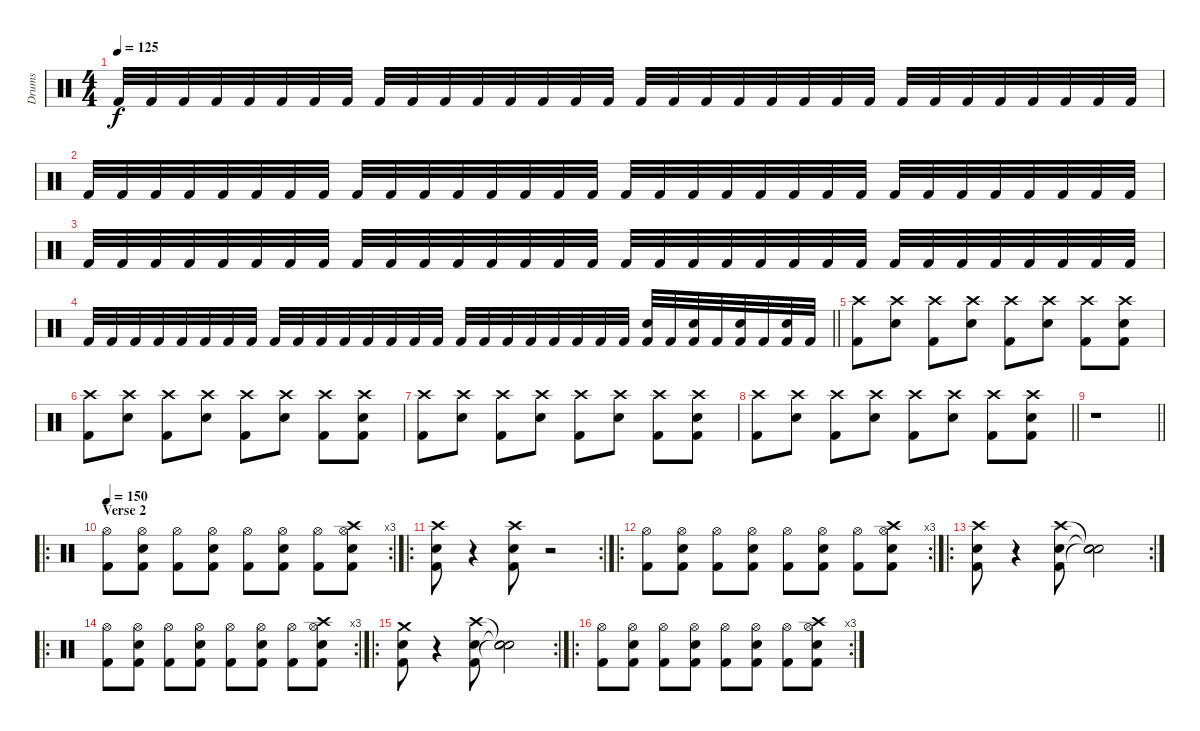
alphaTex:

\track ("Drums" "Drums") {instrument percussion}
\staff {score}
\articulation defaults
\ts (4 4)
\tempo 125
\clef neutral
\ks c "Kick (hit) 2".32{dy f} "Kick (hit) 2".32 "Kick (hit) 2".32 "Kick (hit) 2".32 "Kick (hit) 2".32 "Kick (hit) 2".32 "Kick (hit) 2".32 "Kick (hit) 2".32 "Kick (hit) 2".32 "Kick (hit) 2".32 "Kick (hit) 2".32 "Kick (hit) 2".32 "Kick (hit) 2".32 "Kick (hit) 2".32 "Kick (hit) 2".32 "Kick (hit) 2".32 "Kick (hit) 2".32 "Kick (hit) 2".32 "Kick (hit) 2".32 "Kick (hit) 2".32 "Kick (hit) 2".32 "Kick (hit) 2".32 "Kick (hit) 2".32 "Kick (hit) 2".32 "Kick (hit) 2".32 "Kick (hit) 2".32 "Kick (hit) 2".32 "Kick (hit) 2".32 "Kick (hit) 2".32 "Kick (hit) 2".32 "Kick (hit) 2".32 "Kick (hit) 2".32
|
"Kick (hit) 2".32 "Kick (hit) 2".32 "Kick (hit) 2".32 "Kick (hit) 2".32 "Kick (hit) 2".32 "Kick (hit) 2".32 "Kick (hit) 2".32 "Kick (hit) 2".32 "Kick (hit) 2".32 "Kick (hit) 2".32 "Kick (hit) 2".32 "Kick (hit) 2".32 "Kick (hit) 2".32 "Kick (hit) 2".32 "Kick (hit) 2".32 "Kick (hit) 2".32 "Kick (hit) 2".32 "Kick (hit) 2".32 "Kick (hit) 2".32 "Kick (hit) 2".32 "Kick (hit) 2".32 "Kick (hit) 2".32 "Kick (hit) 2".32 "Kick (hit) 2".32 "Kick (hit) 2".32 "Kick (hit) 2".32 "Kick (hit) 2".32 "Kick (hit) 2".32 "Kick (hit) 2".32 "Kick (hit) 2".32 "Kick (hit) 2".32 "Kick (hit) 2".32 |
"Kick (hit) 2".32 "Kick (hit) 2".32 "Kick (hit) 2".32 "Kick (hit) 2".32 "Kick (hit) 2".32 "Kick (hit) 2".32 "Kick (hit) 2".32 "Kick (hit) 2".32 "Kick (hit) 2".32 "Kick (hit) 2".32 "Kick (hit) 2".32 "Kick (hit) 2".32 "Kick (hit) 2".32 "Kick (hit) 2".32 "Kick (hit) 2".32 "Kick (hit) 2".32 "Kick (hit) 2".32 "Kick (hit) 2".32 "Kick (hit) 2".32 "Kick (hit) 2".32 "Kick (hit) 2".32 "Kick (hit) 2".32 "Kick (hit) 2".32 "Kick (hit) 2".32 "Kick (hit) 2".32 "Kick (hit) 2".32 "Kick (hit) 2".32 "Kick (hit) 2".32 "Kick (hit) 2".32 "Kick (hit) 2".32 "Kick (hit) 2".32 "Kick (hit) 2".32 |
\barLineRight lightlight "Kick (hit) 2".32 "Kick (hit) 2".32 "Kick (hit) 2".32 "Kick (hit) 2".32 "Kick (hit) 2".32 "Kick (hit) 2".32 "Kick (hit) 2".32 "Kick (hit) 2".32 "Kick (hit) 2".32 "Kick (hit) 2".32 "Kick (hit) 2".32 "Kick (hit) 2".32 "Kick (hit) 2".32 "Kick (hit) 2".32 "Kick (hit) 2".32 "Kick (hit) 2".32 "Kick (hit) 2".32 "Kick (hit) 2".32 "Kick (hit) 2".32 "Kick (hit) 2".32 "Kick (hit) 2".32 "Kick (hit) 2".32 "Kick (hit) 2".32 "Kick (hit) 2".32
("Snare (hit) 2" "Kick (hit) 2").32 "Kick (hit) 2".32 ("Snare (hit) 2" "Kick (hit) 2").32 "Kick (hit) 2".32 ("Snare (hit) 2" "Kick (hit) 2").32 "Kick (hit) 2".32 ("Snare (hit) 2" "Kick (hit) 2").32 "Kick (hit) 2".32 |
("Crash high (hit)" "Kick (hit) 2").8{volume 13} ("Crash high (hit)" "Snare (hit) 2").8 ("Crash high (hit)" "Kick (hit) 2").8 ("Crash high (hit)" "Snare (hit) 2").8 ("Crash high (hit)" "Kick (hit) 2").8 ("Crash high (hit)" "Snare (hit) 2").8 ("Crash high (hit)" "Kick (hit) 2").8 ("Crash high (hit)" "Snare (hit) 2" "Kick (hit) 2").8 |
("Crash high (hit)" "Kick (hit) 2").8{volume 13} ("Crash high (hit)" "Snare (hit) 2").8 ("Crash high (hit)" "Kick (hit) 2").8 ("Crash high (hit)" "Snare (hit) 2").8 ("Crash high (hit)" "Kick (hit) 2").8 ("Crash high (hit)" "Snare (hit) 2").8 ("Crash high (hit)" "Kick (hit) 2").8 ("Crash high (hit)" "Snare (hit) 2" "Kick (hit) 2").8 |
("Crash high (hit)" "Kick (hit) 2").8{volume 13} ("Crash high (hit)" "Snare (hit) 2").8 ("Crash high (hit)" "Kick (hit) 2").8 ("Crash high (hit)" "Snare (hit) 2").8 ("Crash high (hit)" "Kick (hit) 2").8 ("Crash high (hit)" "Snare (hit) 2").8 ("Crash high (hit)" "Kick (hit) 2").8 ("Crash high (hit)" "Snare (hit) 2" "Kick (hit) 2").8 |
\barLineRight lightlight
("Crash high (hit)" "Kick (hit) 2").8{volume 13} ("Crash high (hit)" "Snare (hit) 2").8 ("Crash high (hit)" "Kick (hit) 2").8 ("Crash high (hit)" "Snare (hit) 2").8 ("Crash high (hit)" "Kick (hit) 2").8 ("Crash high (hit)" "Snare (hit) 2").8 ("Crash high (hit)" "Kick (hit) 2").8 ("Crash high (hit)" "Snare (hit) 2" "Kick (hit) 2").8 |
\barLineRight lightlight
r.1 |
\ro
\rc 3
\section ("" "Verse 2")
\tempo 150
("Hi-Hat (open)" "Kick (hit) 2").8 ("Hi-Hat (open)" "Snare (hit) 2" "Kick (hit) 2").8 ("Hi-Hat (open)" "Kick (hit) 2").8 ("Hi-Hat (open)" "Snare (hit) 2" "Kick (hit) 2").8 ("Hi-Hat (open)" "Kick (hit) 2").8 ("Hi-Hat (open)" "Snare (hit) 2" "Kick (hit) 2").8 ("Hi-Hat (open)" "Kick (hit) 2").8 ("Snare (hit) 2" "Crash high (hit)" "Hi-Hat (open)" "Kick (hit) 2").8 |
\ro
\rc 2
("Snare (hit) 2" "Crash high (hit)" "Kick (hit) 2").8 r.4 ("Snare (hit) 2" "Crash high (hit)" "Kick (hit) 2").8 r.2 |
\ro
\rc 3
("Hi-Hat (open)" "Kick (hit) 2").8 ("Hi-Hat (open)" "Snare (hit) 2" "Kick (hit) 2").8 ("Hi-Hat (open)" "Kick (hit) 2").8 ("Hi-Hat (open)" "Snare (hit) 2" "Kick (hit) 2").8 ("Hi-Hat (open)" "Kick (hit) 2").8 ("Hi-Hat (open)" "Snare (hit) 2" "Kick (hit) 2").8 ("Hi-Hat (open)" "Kick (hit) 2").8 ("Snare (hit) 2" "Crash high (hit)" "Hi-Hat (open)" "Kick (hit) 2").8 |
\ro
\rc 2
("Snare (hit) 2" "Crash high (hit)" "Kick (hit) 2").8 r.4 ("Snare (hit) 2" "Crash high (hit)" "Kick (hit) 2").8 ("Snare (hit)"{t} "Snare (hit)"{t} "Snare (hit)"{t}).2 |
\ro
\rc 3
("Hi-Hat (open)" "Kick (hit) 2").8 ("Hi-Hat (open)" "Snare (hit) 2" "Kick (hit) 2").8 ("Hi-Hat (open)" "Kick (hit) 2").8 ("Hi-Hat (open)" "Snare (hit) 2" "Kick (hit) 2").8 ("Hi-Hat (open)" "Kick (hit) 2").8 ("Hi-Hat (open)" "Snare (hit) 2" "Kick (hit) 2").8 ("Hi-Hat (open)" "Kick (hit) 2").8 ("Snare (hit) 2" "Hi-Hat (open)" "Crash high (hit)" "Kick (hit) 2").8 |
\ro
\rc 2
("Snare (hit) 2" "Crash medium (hit)" "Kick (hit) 2").8 r.4 ("Snare (hit) 2" "Crash high (hit)" "Kick (hit) 2").8 ("Snare (hit)"{t} "Snare (hit)"{t} "Snare (hit)"{t}).2 |
\ro
\rc 3
("Hi-Hat (open)" "Kick (hit) 2").8 ("Hi-Hat (open)" "Snare (hit) 2" "Kick (hit) 2").8 ("Hi-Hat (open)" "Kick (hit) 2").8 ("Hi-Hat (open)" "Snare (hit) 2" "Kick (hit) 2").8 ("Hi-Hat (open)" "Kick (hit) 2").8 ("Hi-Hat (open)" "Snare (hit) 2" "Kick (hit) 2").8 ("Hi-Hat (open)" "Kick (hit) 2").8 ("Snare (hit) 2" "Hi-Hat (open)" "Crash high (hit)" "Kick (hit) 2").8
